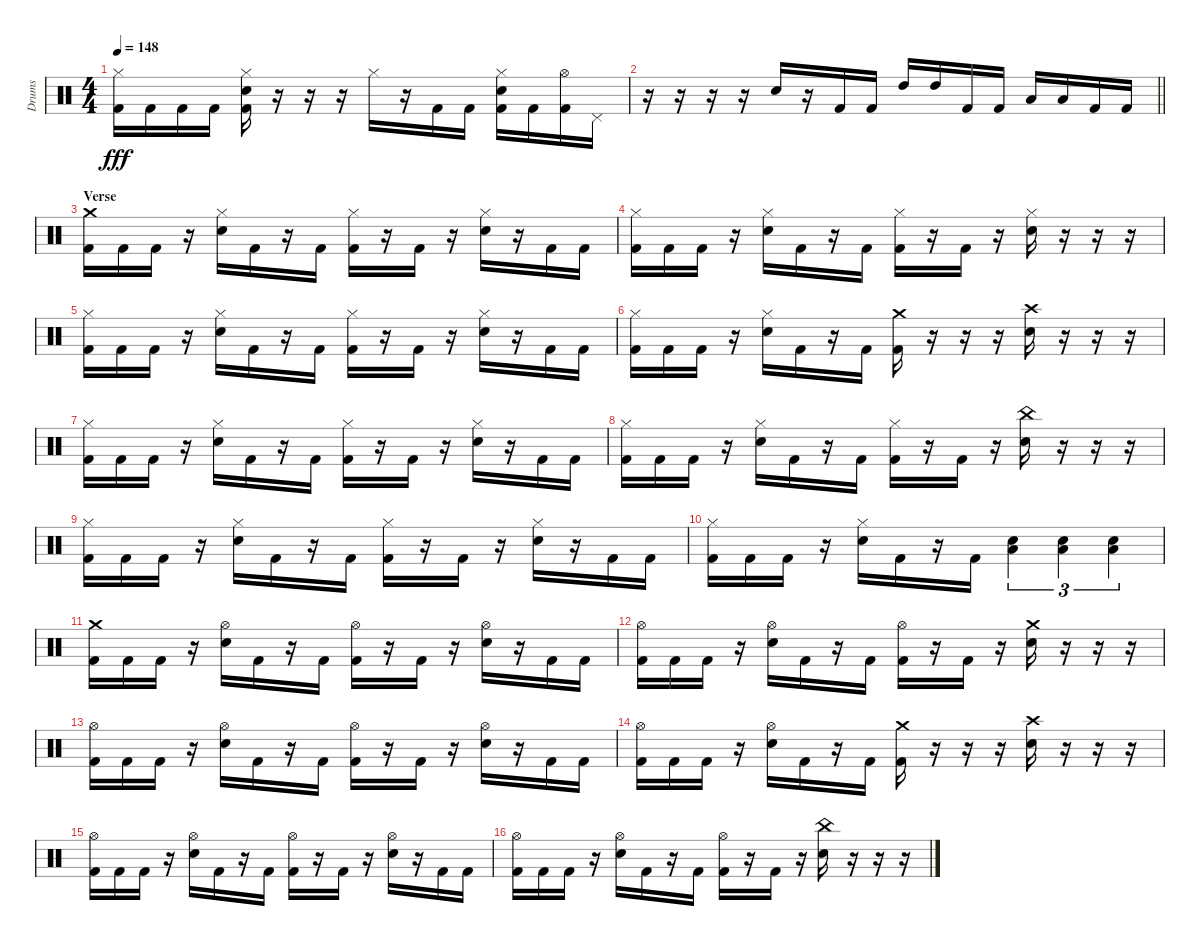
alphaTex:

\track ("Drums" "Drums") {instrument percussion}
\staff {score}
\articulation defaults
\ts (4 4)
\tempo 148
\clef neutral
\ks c
("Hi-Hat (closed)" "Kick (hit) 2").16{dy fff} "Kick (hit) 2".16 "Kick (hit) 2".16 "Kick (hit) 2".16 ("Hi-Hat (closed)" "Electric Snare (hit)" "Kick (hit) 2").16 r.16 r.16 r.16 "Hi-Hat (closed)".16 r.16 "Kick (hit) 2".16 "Kick (hit) 2".16 ("Hi-Hat (closed)" "Electric Snare (hit)" "Kick (hit) 2").16 "Kick (hit) 2".16 ("Hi-Hat (open)" "Kick (hit) 2").16 "Pedal Hi-Hat (hit)".16 |
\barLineRight lightlight
r.16 r.16 r.16 r.16 "Electric Snare (hit)".16 r.16 "Kick (hit) 2".16 "Kick (hit) 2".16 "High Tom (hit)".16 "High Tom (hit)".16 "Kick (hit) 2".16 "Kick (hit) 2".16 "Low Floor Tom (hit)".16 "Low Floor Tom (hit)".16 "Kick (hit) 2".16 "Kick (hit) 2".16 |
\section ("" "Verse")
("Crash medium (hit)" "Kick (hit) 2").16 "Kick (hit) 2".16 "Kick (hit) 2".16 r.16 ("Hi-Hat (closed)" "Electric Snare (hit)").16 "Kick (hit) 2".16 r.16 "Kick (hit) 2".16 ("Hi-Hat (closed)" "Kick (hit) 2").16 r.16 "Kick (hit) 2".16 r.16 ("Hi-Hat (closed)" "Electric Snare (hit)").16 r.16 "Kick (hit) 2".16 "Kick (hit) 2".16 |
("Hi-Hat (closed)" "Kick (hit) 2").16 "Kick (hit) 2".16 "Kick (hit) 2".16 r.16 ("Hi-Hat (closed)" "Electric Snare (hit)").16 "Kick (hit) 2".16 r.16 "Kick (hit) 2".16 ("Hi-Hat (closed)" "Kick (hit) 2").16 r.16 "Kick (hit) 2".16 r.16 ("Hi-Hat (closed)" "Electric Snare (hit)").16 r.16 r.16 r.16 |
("Hi-Hat (closed)" "Kick (hit) 2").16 "Kick (hit) 2".16 "Kick (hit) 2".16 r.16 ("Hi-Hat (closed)" "Electric Snare (hit)").16 "Kick (hit) 2".16 r.16 "Kick (hit) 2".16 ("Hi-Hat (closed)" "Kick (hit) 2").16 r.16 "Kick (hit) 2".16 r.16 ("Hi-Hat (closed)" "Electric Snare (hit)").16 r.16 "Kick (hit) 2".16 "Kick (hit) 2".16 |
("Hi-Hat (closed)" "Kick (hit) 2").16 "Kick (hit) 2".16 "Kick (hit) 2".16 r.16 ("Hi-Hat (closed)" "Electric Snare (hit)").16 "Kick (hit) 2".16 r.16 "Kick (hit) 2".16 ("Crash medium (hit)" "Kick (hit) 2").16 r.16 r.16 r.16 ("Crash high (hit)" "Electric Snare (hit)").16 r.16 r.16 r.16 |
("Hi-Hat (closed)" "Kick (hit) 2").16 "Kick (hit) 2".16 "Kick (hit) 2".16 r.16 ("Hi-Hat (closed)" "Electric Snare (hit)").16 "Kick (hit) 2".16 r.16 "Kick (hit) 2".16 ("Hi-Hat (closed)" "Kick (hit) 2").16 r.16 "Kick (hit) 2".16 r.16 ("Hi-Hat (closed)" "Electric Snare (hit)").16 r.16 "Kick (hit) 2".16 "Kick (hit) 2".16 |
("Hi-Hat (closed)" "Kick (hit) 2").16 "Kick (hit) 2".16 "Kick (hit) 2".16 r.16 ("Hi-Hat (closed)" "Electric Snare (hit)").16 "Kick (hit) 2".16 r.16 "Kick (hit) 2".16 ("Hi-Hat (closed)" "Kick (hit) 2").16 r.16 "Kick (hit) 2".16 r.16 ("China (hit)" "Electric Snare (hit)").16 r.16 r.16 r.16 |
("Hi-Hat (closed)" "Kick (hit) 2").16 "Kick (hit) 2".16 "Kick (hit) 2".16 r.16 ("Hi-Hat (closed)" "Electric Snare (hit)").16 "Kick (hit) 2".16 r.16 "Kick (hit) 2".16 ("Hi-Hat (closed)" "Kick (hit) 2").16 r.16 "Kick (hit) 2".16 r.16 ("Hi-Hat (closed)" "Electric Snare (hit)").16 r.16 "Kick (hit) 2".16 "Kick (hit) 2".16 |
("Hi-Hat (closed)" "Kick (hit) 2").16 "Kick (hit) 2".16 "Kick (hit) 2".16 r.16 ("Hi-Hat (closed)" "Electric Snare (hit)").16 "Kick (hit) 2".16 r.16 "Kick (hit) 2".16 ("Electric Snare (hit)" "Low Tom (hit)").4{tu (3 2)} ("Electric Snare (hit)" "Low Tom (hit)").4{tu (3 2)} ("Electric Snare (hit)" "Low Tom (hit)").4{tu (3 2)} |
("Crash medium (hit)" "Kick (hit) 2").16 "Kick (hit) 2".16 "Kick (hit) 2".16 r.16 ("Hi-Hat (open)" "Electric Snare (hit)").16 "Kick (hit) 2".16 r.16 "Kick (hit) 2".16 ("Hi-Hat (open)" "Kick (hit) 2").16 r.16 "Kick (hit) 2".16 r.16 ("Hi-Hat (open)" "Electric Snare (hit)").16 r.16 "Kick (hit) 2".16 "Kick (hit) 2".16 |
("Hi-Hat (open)" "Kick (hit) 2").16 "Kick (hit) 2".16 "Kick (hit) 2".16 r.16 ("Hi-Hat (open)" "Electric Snare (hit)").16 "Kick (hit) 2".16 r.16 "Kick (hit) 2".16 ("Hi-Hat (open)" "Kick (hit) 2").16 r.16 "Kick (hit) 2".16 r.16 ("Crash medium (hit)" "Electric Snare (hit)").16 r.16 r.16 r.16 |
("Hi-Hat (open)" "Kick (hit) 2").16 "Kick (hit) 2".16 "Kick (hit) 2".16 r.16 ("Hi-Hat (open)" "Electric Snare (hit)").16 "Kick (hit) 2".16 r.16 "Kick (hit) 2".16 ("Hi-Hat (open)" "Kick (hit) 2").16 r.16 "Kick (hit) 2".16 r.16 ("Hi-Hat (open)" "Electric Snare (hit)").16 r.16 "Kick (hit) 2".16 "Kick (hit) 2".16 |
("Hi-Hat (open)" "Kick (hit) 2").16 "Kick (hit) 2".16 "Kick (hit) 2".16 r.16 ("Hi-Hat (open)" "Electric Snare (hit)").16 "Kick (hit) 2".16 r.16 "Kick (hit) 2".16 ("Crash medium (hit)" "Kick (hit) 2").16 r.16 r.16 r.16 ("Crash high (hit)" "Electric Snare (hit)").16 r.16 r.16 r.16 |
("Hi-Hat (open)" "Kick (hit) 2").16 "Kick (hit) 2".16 "Kick (hit) 2".16 r.16 ("Hi-Hat (open)" "Electric Snare (hit)").16 "Kick (hit) 2".16 r.16 "Kick (hit) 2".16 ("Hi-Hat (open)" "Kick (hit) 2").16 r.16 "Kick (hit) 2".16 r.16 ("Hi-Hat (open)" "Electric Snare (hit)").16 r.16 "Kick (hit) 2".16 "Kick (hit) 2".16 |
("Hi-Hat (open)" "Kick (hit) 2").16 "Kick (hit) 2".16 "Kick (hit) 2".16 r.16 ("Hi-Hat (open)" "Electric Snare (hit)").16 "Kick (hit) 2".16 r.16 "Kick (hit) 2".16 ("Hi-Hat (open)" "Kick (hit) 2").16 r.16 "Kick (hit) 2".16 r.16 ("China (hit)" "Electric Snare (hit)").16 r.16 r.16 r.16
